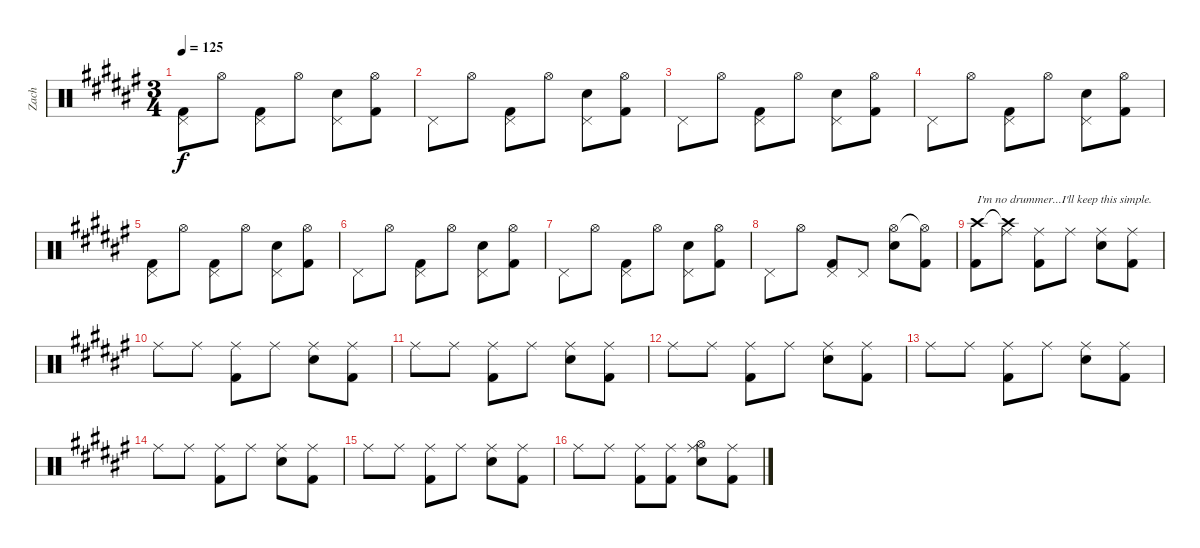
\track ("Zach" "Zach") {instrument percussion}
\staff {score}
\articulation defaults
\ts (3 4)
\tempo 125
\clef neutral
\ks f#
("Pedal Hi-Hat (hit)" "Kick (hit) 2").8{dy f} "Hi-Hat (open)".8 ("Pedal Hi-Hat (hit)" "Kick (hit) 2").8 "Hi-Hat (open)".8 ("Pedal Hi-Hat (hit)" "Snare (hit) 2").8 ("Hi-Hat (open)" "Kick (hit) 2").8 |
"Pedal Hi-Hat (hit)".8 "Hi-Hat (open)".8 ("Pedal Hi-Hat (hit)" "Kick (hit) 2").8 "Hi-Hat (open)".8 ("Pedal Hi-Hat (hit)" "Snare (hit) 2").8 ("Hi-Hat (open)" "Kick (hit) 2").8 |
"Pedal Hi-Hat (hit)".8 "Hi-Hat (open)".8 ("Pedal Hi-Hat (hit)" "Kick (hit) 2").8 "Hi-Hat (open)".8 ("Pedal Hi-Hat (hit)" "Snare (hit) 2").8 ("Hi-Hat (open)" "Kick (hit) 2").8 |
"Pedal Hi-Hat (hit)".8 "Hi-Hat (open)".8 ("Pedal Hi-Hat (hit)" "Kick (hit) 2").8 "Hi-Hat (open)".8 ("Pedal Hi-Hat (hit)" "Snare (hit) 2").8 ("Hi-Hat (open)" "Kick (hit) 2").8 |
("Pedal Hi-Hat (hit)" "Kick (hit) 2").8 "Hi-Hat (open)".8 ("Pedal Hi-Hat (hit)" "Kick (hit) 2").8 "Hi-Hat (open)".8 ("Pedal Hi-Hat (hit)" "Snare (hit) 2").8 ("Hi-Hat (open)" "Kick (hit) 2").8 |
"Pedal Hi-Hat (hit)".8 "Hi-Hat (open)".8 ("Pedal Hi-Hat (hit)" "Kick (hit) 2").8 "Hi-Hat (open)".8 ("Pedal Hi-Hat (hit)" "Snare (hit) 2").8 ("Hi-Hat (open)" "Kick (hit) 2").8 |
"Pedal Hi-Hat (hit)".8 "Hi-Hat (open)".8 ("Pedal Hi-Hat (hit)" "Kick (hit) 2").8 "Hi-Hat (open)".8 ("Pedal Hi-Hat (hit)" "Snare (hit) 2").8 ("Hi-Hat (open)" "Kick (hit) 2").8 |
"Pedal Hi-Hat (hit)".8 "Hi-Hat (open)".8 ("Pedal Hi-Hat (hit)" "Kick (hit) 2").8 "Pedal Hi-Hat (hit)".8 ("Hi-Hat (open)" "Snare (hit) 2").8 ("Hi-Hat (open)"{t} "Kick (hit) 2").8 |
("Crash high (hit)" "Kick (hit) 2").8{txt "I'm no drummer...I'll keep this simple."} ("Crash high (hit)"{t} "Ride (middle)").8 ("Ride (middle)" "Kick (hit) 2").8 "Ride (middle)".8 ("Ride (middle)" "Snare (hit) 2").8 ("Ride (middle)" "Kick (hit) 2").8 |
"Ride (middle)".8 "Ride (middle)".8 ("Ride (middle)" "Kick (hit) 2").8 "Ride (middle)".8 ("Ride (middle)" "Snare (hit) 2").8 ("Ride (middle)" "Kick (hit) 2").8 |
"Ride (middle)".8 "Ride (middle)".8 ("Ride (middle)" "Kick (hit) 2").8 "Ride (middle)".8 ("Ride (middle)" "Snare (hit) 2").8 ("Ride (middle)" "Kick (hit) 2").8 |
"Ride (middle)".8 "Ride (middle)".8 ("Ride (middle)" "Kick (hit) 2").8 "Ride (middle)".8 ("Ride (middle)" "Snare (hit) 2").8 ("Ride (middle)" "Kick (hit) 2").8 |
"Ride (middle)".8 "Ride (middle)".8 ("Ride (middle)" "Kick (hit) 2").8 "Ride (middle)".8 ("Ride (middle)" "Snare (hit) 2").8 ("Ride (middle)" "Kick (hit) 2").8 |
"Ride (middle)".8 "Ride (middle)".8 ("Ride (middle)" "Kick (hit) 2").8 "Ride (middle)".8 ("Ride (middle)" "Snare (hit) 2").8 ("Ride (middle)" "Kick (hit) 2").8 |
"Ride (middle)".8 "Ride (middle)".8 ("Ride (middle)" "Kick (hit) 2").8 "Ride (middle)".8 ("Ride (middle)" "Snare (hit) 2").8 ("Ride (middle)" "Kick (hit) 2").8 |
"Ride (middle)".8 "Ride (middle)".8 ("Ride (middle)" "Kick (hit) 2").8 ("Ride (middle)" "Kick (hit) 2").8 ("Hi-Hat (open)" "Ride (middle)" "Snare (hit) 2").8 ("Ride (middle)" "Kick (hit) 2").8
